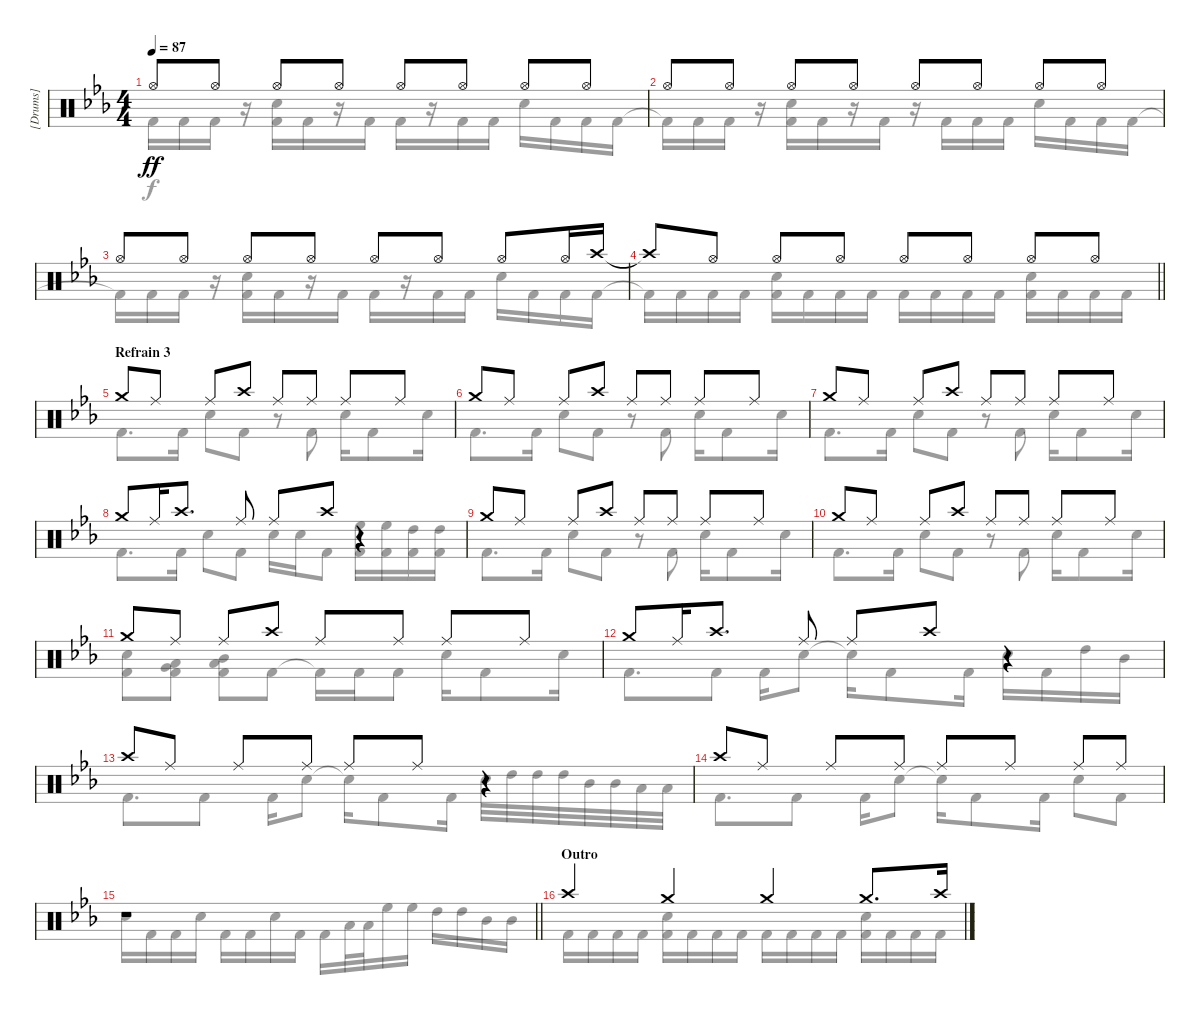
\track ("[Drums]" "[Drums]") {instrument percussion}
\staff {score}
\articulation defaults
\voice
\ts (4 4)
\tempo 87
\clef neutral
\ks cminor "Hi-Hat (open)".8{dy ff} "Hi-Hat (open)".8 "Hi-Hat (open)".8 "Hi-Hat (open)".8 "Hi-Hat (open)".8 "Hi-Hat (open)".8 "Hi-Hat (open)".8 "Hi-Hat (open)".8
|
"Hi-Hat (open)".8 "Hi-Hat (open)".8 "Hi-Hat (open)".8 "Hi-Hat (open)".8 "Hi-Hat (open)".8 "Hi-Hat (open)".8 "Hi-Hat (open)".8 "Hi-Hat (open)".8 |
"Hi-Hat (open)".8 "Hi-Hat (open)".8 "Hi-Hat (open)".8 "Hi-Hat (open)".8 "Hi-Hat (open)".8 "Hi-Hat (open)".8 "Hi-Hat (open)".8 "Hi-Hat (open)".16 "Crash high (hit)".16 |
\barLineRight lightlight "Crash high (hit)"{t}.8 "Hi-Hat (open)".8 "Hi-Hat (open)".8 "Hi-Hat (open)".8 "Hi-Hat (open)".8 "Hi-Hat (open)".8 "Hi-Hat (open)".8 "Hi-Hat (open)".8
|
\section ("" "Refrain 3")
"Crash medium (hit)".8 "Ride (middle)".8 "Ride (middle)".8 "Crash high (hit)".8 "Ride (middle)".8 "Ride (middle)".8 "Ride (middle)".8 "Ride (middle)".8 |
"Crash medium (hit)".8 "Ride (middle)".8 "Ride (middle)".8 "Crash high (hit)".8 "Ride (middle)".8 "Ride (middle)".8 "Ride (middle)".8 "Ride (middle)".8 |
"Crash medium (hit)".8 "Ride (middle)".8 "Ride (middle)".8 "Crash high (hit)".8 "Ride (middle)".8 "Ride (middle)".8 "Ride (middle)".8 "Ride (middle)".8 |
"Crash medium (hit)".8 "Ride (middle)".16 "Crash high (hit)".8{d} "Ride (middle)".8 "Ride (middle)".8 "Crash high (hit)".8 r.4 |
"Crash medium (hit)".8 "Ride (middle)".8 "Ride (middle)".8 "Crash high (hit)".8 "Ride (middle)".8 "Ride (middle)".8 "Ride (middle)".8 "Ride (middle)".8 |
"Crash medium (hit)".8 "Ride (middle)".8 "Ride (middle)".8 "Crash high (hit)".8 "Ride (middle)".8 "Ride (middle)".8 "Ride (middle)".8 "Ride (middle)".8 |
"Crash medium (hit)".8 "Ride (middle)".8 "Ride (middle)".8 "Crash high (hit)".8 "Ride (middle)".8 "Ride (middle)".8 "Ride (middle)".8 "Ride (middle)".8 |
"Crash medium (hit)".8 "Ride (middle)".16 "Crash high (hit)".8{d} "Ride (middle)".8 "Ride (middle)".8 "Crash high (hit)".8 r.4 |
"Crash high (hit)".8 "Ride (middle)".8 "Ride (middle)".8 "Ride (middle)".8 "Ride (middle)".8 "Ride (middle)".8 r.4 |
"Crash high (hit)".8 "Ride (middle)".8 "Ride (middle)".8 "Ride (middle)".8 "Ride (middle)".8 "Ride (middle)".8 "Ride (middle)".8 "Ride (middle)".8 |
\barLineRight lightlight
r.1 |
\section ("" "Outro")
"Crash high (hit)".4 "Crash medium (hit)".4 "Crash medium (hit)".4 "Crash medium (hit)".8{d} "Crash high (hit)".16
\voice
\clef neutral
\ottava regular
\simile none
\ks cminor "Kick (hit) 2".16{dy f} "Kick (hit) 2".16 "Kick (hit) 2".16
r.16 ("Kick (hit) 2" "Snare (hit) 2").16 "Kick (hit) 2".16 r.16 "Kick (hit) 2".16 "Kick (hit) 2".16 r.16 "Kick (hit) 2".16 "Kick (hit) 2".16 "Snare (hit) 2".16 "Kick (hit) 2".16 "Kick (hit) 2".16 "Kick (hit) 2".16 |
"Kick (hit) 2"{t}.16 "Kick (hit) 2".16 "Kick (hit) 2".16 r.16 ("Kick (hit) 2" "Snare (hit) 2").16 "Kick (hit) 2".16 r.16 "Kick (hit) 2".16 r.16 "Kick (hit) 2".16 "Kick (hit) 2".16 "Kick (hit) 2".16 "Snare (hit) 2".16 "Kick (hit) 2".16 "Kick (hit) 2".16 "Kick (hit) 2".16 |
"Kick (hit) 2"{t}.16 "Kick (hit) 2".16 "Kick (hit) 2".16 r.16 ("Kick (hit) 2" "Snare (hit) 2").16 "Kick (hit) 2".16 r.16 "Kick (hit) 2".16 "Kick (hit) 2".16 r.16 "Kick (hit) 2".16 "Kick (hit) 2".16 "Snare (hit) 2".16 "Kick (hit) 2".16 "Kick (hit) 2".16 "Kick (hit) 2".16 |
\barLineRight lightlight "Kick (hit) 2"{t}.16 "Kick (hit) 2".16 "Kick (hit) 2".16 "Kick (hit) 2".16
("Kick (hit) 2" "Snare (hit) 2").16 "Kick (hit) 2".16 "Kick (hit) 2".16 "Kick (hit) 2".16 "Kick (hit) 2".16 "Kick (hit) 2".16 "Kick (hit) 2".16 "Kick (hit) 2".16 ("Kick (hit) 2" "Snare (hit) 2").16 "Kick (hit) 2".16 "Kick (hit) 2".16 "Kick (hit) 2".16 |
"Kick (hit) 2".8{d} "Kick (hit) 2".16 "Snare (hit) 2".8 "Kick (hit) 2".8 r.8 "Kick (hit) 2".8 "Snare (hit) 2".16 "Kick (hit) 2".8 "Snare (hit) 2".16 |
"Kick (hit) 2".8{d} "Kick (hit) 2".16 "Snare (hit) 2".8 "Kick (hit) 2".8 r.8 "Kick (hit) 2".8 "Snare (hit) 2".16 "Kick (hit) 2".8 "Snare (hit) 2".16 |
"Kick (hit) 2".8{d} "Kick (hit) 2".16 "Snare (hit) 2".8 "Kick (hit) 2".8 r.8 "Kick (hit) 2".8 "Snare (hit) 2".16 "Kick (hit) 2".8 "Snare (hit) 2".16 |
"Kick (hit) 2".8{d} "Kick (hit) 2".16 "Snare (hit) 2".8 "Kick (hit) 2".8 "Snare (hit) 2".16 "Snare (hit) 2".16 "Kick (hit) 2".8 ("High Floor Tom (hit)" "Kick (hit) 2").16 ("High Floor Tom (hit)" "Kick (hit) 2").16 ("High Tom (hit)" "Kick (hit) 2").16 ("High Tom (hit)" "Kick (hit) 2").16 |
"Kick (hit) 2".8{d} "Kick (hit) 2".16 "Snare (hit) 2".8 "Kick (hit) 2".8 r.8 "Kick (hit) 2".8 "Snare (hit) 2".16 "Kick (hit) 2".8 "Snare (hit) 2".16 |
"Kick (hit) 2".8{d} "Kick (hit) 2".16 "Snare (hit) 2".8 "Kick (hit) 2".8 r.8 "Kick (hit) 2".8 "Snare (hit) 2".16 "Kick (hit) 2".8 "Snare (hit) 2".16 |
("Kick (hit) 2" "Snare (hit) 2").8 ("Kick (hit) 2" "Very Low Tom (hit)" "Low Tom (hit)").8 ("Kick (hit) 2" "Low Tom (hit)" "Mid Tom (hit)").8 "Kick (hit) 2".8 "Kick (hit) 2"{t}.16 "Kick (hit) 2".16 "Kick (hit) 2".8 "Snare (hit) 2".16 "Kick (hit) 2".8 "Snare (hit) 2".16 |
"Kick (hit) 2".8{d} "Kick (hit) 2".8 "Kick (hit) 2".16 "Snare (hit) 2".8 "Snare (hit) 2"{t}.16 "Kick (hit) 2".8 "Kick (hit) 2".16 "Snare (hit) 2".16 "Kick (hit) 2".16 "High Tom (hit)".16 "Mid Tom (hit)".16 |
"Kick (hit) 2".8{d} "Kick (hit) 2".8 "Kick (hit) 2".16 "Snare (hit) 2".8 "Snare (hit) 2"{t}.16 "Kick (hit) 2".8 "Kick (hit) 2".16 "Snare (hit) 2".32 "High Tom (hit)".32 "High Tom (hit)".32 "High Tom (hit)".32 "Mid Tom (hit)".32 "Mid Tom (hit)".32 "Low Tom (hit)".32 "Low Tom (hit)".32 |
"Kick (hit) 2".8{d} "Kick (hit) 2".8 "Kick (hit) 2".16 "Snare (hit) 2".8 "Snare (hit) 2"{t}.16 "Kick (hit) 2".8 "Kick (hit) 2".16 "Snare (hit) 2".8 "Kick (hit) 2".8 |
\barLineRight lightlight "Snare (hit) 2".16 "Kick (hit) 2".16 "Kick (hit) 2".16 "Snare (hit) 2".16 "Kick (hit) 2".16 "Kick (hit) 2".16 "Snare (hit) 2".16 "Kick (hit) 2".16 "Kick (hit) 2".16 "Low Tom (hit)".32 "Low Tom (hit)".32 "High Floor Tom (hit)".16 "High Floor Tom (hit)".16 "High Tom (hit)".16 "High Tom (hit)".16 "Mid Tom (hit)".16 "Mid Tom (hit)".16
|
"Kick (hit) 2".16 "Kick (hit) 2".16 "Kick (hit) 2".16 "Kick (hit) 2".16 ("Snare (hit) 2" "Kick (hit) 2").16 "Kick (hit) 2".16 "Kick (hit) 2".16 "Kick (hit) 2".16 "Kick (hit) 2".16 "Kick (hit) 2".16 "Kick (hit) 2".16 "Kick (hit) 2".16 ("Snare (hit) 2" "Kick (hit) 2").16 "Kick (hit) 2".16 "Kick (hit) 2".16 "Kick (hit) 2".16
